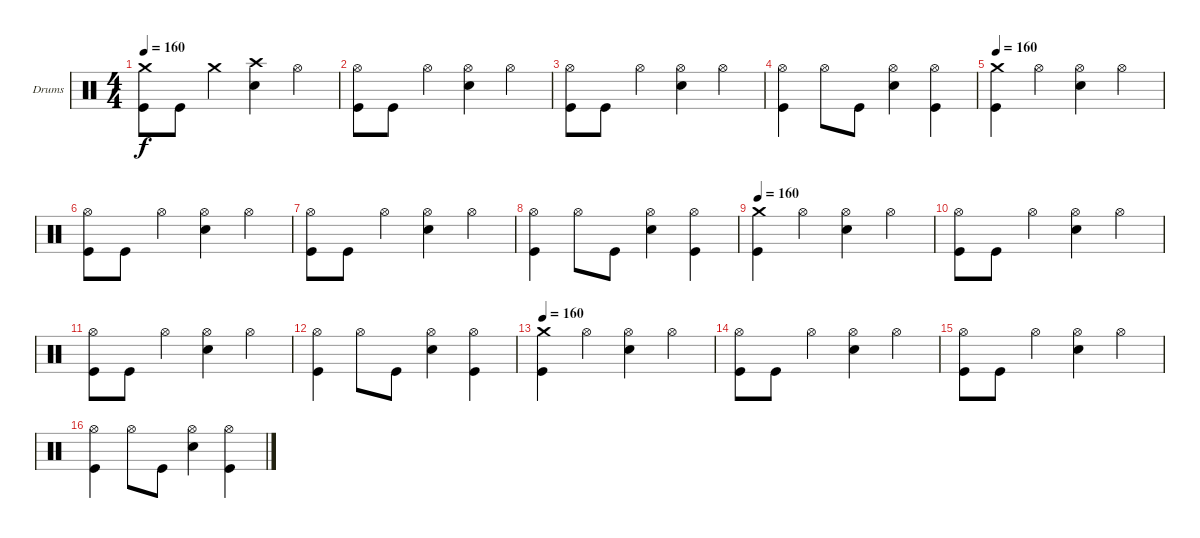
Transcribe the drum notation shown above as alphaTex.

\bracketExtendMode groupsimilarinstruments
\firstSystemTrackNameOrientation horizontal
\otherSystemsTrackNameOrientation horizontal
\track ("Drumkit" "Drums") {instrument percussion}
\staff {score}
\articulation defaults
\ts (4 4)
\tempo 160
\clef neutral
\ks c
("Crash medium (hit)" "Kick (hit)").8{dy f} "Kick (hit)".8 "Crash medium (hit)".4 ("Crash high (hit)" "Snare (hit) 2").4 "Hi-Hat (open)".4 |
("Hi-Hat (open)" "Kick (hit)").8 "Kick (hit)".8 "Hi-Hat (open)".4 ("Hi-Hat (open)" "Snare (hit) 2").4 "Hi-Hat (open)".4 |
("Hi-Hat (open)" "Kick (hit)").8 "Kick (hit)".8 "Hi-Hat (open)".4 ("Hi-Hat (open)" "Snare (hit) 2").4 "Hi-Hat (open)".4 |
("Hi-Hat (open)" "Kick (hit)").4 "Hi-Hat (open)".8 "Kick (hit)".8 ("Hi-Hat (open)" "Snare (hit) 2").4 ("Hi-Hat (open)" "Kick (hit)").4 |
\tempo 160
("Crash medium (hit)" "Kick (hit)").4 "Hi-Hat (open)".4 ("Hi-Hat (open)" "Snare (hit) 2").4 "Hi-Hat (open)".4 |
("Hi-Hat (open)" "Kick (hit)").8 "Kick (hit)".8 "Hi-Hat (open)".4 ("Hi-Hat (open)" "Snare (hit) 2").4 "Hi-Hat (open)".4 |
("Hi-Hat (open)" "Kick (hit)").8 "Kick (hit)".8 "Hi-Hat (open)".4 ("Hi-Hat (open)" "Snare (hit) 2").4 "Hi-Hat (open)".4 |
("Hi-Hat (open)" "Kick (hit)").4 "Hi-Hat (open)".8 "Kick (hit)".8 ("Hi-Hat (open)" "Snare (hit) 2").4 ("Hi-Hat (open)" "Kick (hit)").4 |
\tempo 160
("Crash medium (hit)" "Kick (hit)").4 "Hi-Hat (open)".4 ("Hi-Hat (open)" "Snare (hit) 2").4 "Hi-Hat (open)".4 |
("Hi-Hat (open)" "Kick (hit)").8 "Kick (hit)".8 "Hi-Hat (open)".4 ("Hi-Hat (open)" "Snare (hit) 2").4 "Hi-Hat (open)".4 |
("Hi-Hat (open)" "Kick (hit)").8 "Kick (hit)".8 "Hi-Hat (open)".4 ("Hi-Hat (open)" "Snare (hit) 2").4 "Hi-Hat (open)".4 |
("Hi-Hat (open)" "Kick (hit)").4 "Hi-Hat (open)".8 "Kick (hit)".8 ("Hi-Hat (open)" "Snare (hit) 2").4 ("Hi-Hat (open)" "Kick (hit)").4 |
\tempo 160
("Crash medium (hit)" "Kick (hit)").4 "Hi-Hat (open)".4 ("Hi-Hat (open)" "Snare (hit) 2").4 "Hi-Hat (open)".4 |
("Hi-Hat (open)" "Kick (hit)").8 "Kick (hit)".8 "Hi-Hat (open)".4 ("Hi-Hat (open)" "Snare (hit) 2").4 "Hi-Hat (open)".4 |
("Hi-Hat (open)" "Kick (hit)").8 "Kick (hit)".8 "Hi-Hat (open)".4 ("Hi-Hat (open)" "Snare (hit) 2").4 "Hi-Hat (open)".4 |
("Hi-Hat (open)" "Kick (hit)").4 "Hi-Hat (open)".8 "Kick (hit)".8 ("Hi-Hat (open)" "Snare (hit) 2").4 ("Hi-Hat (open)" "Kick (hit)").4
